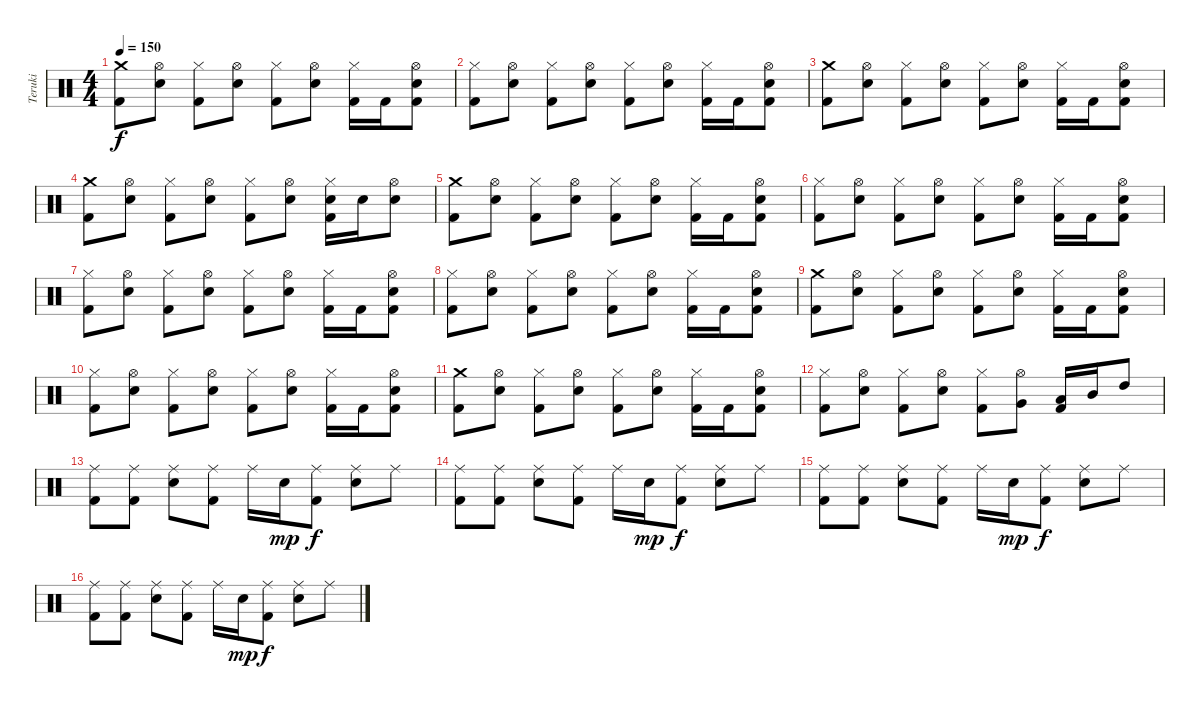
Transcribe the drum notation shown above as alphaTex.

\track ("Teruki" "Teruki") {instrument percussion}
\staff {score}
\articulation defaults
\ts (4 4)
\tempo 150
\clef neutral
\ks c
("Crash medium (hit)" "Kick (hit) 2").8{dy f} ("Hi-Hat (open)" "Electric Snare (hit)").8 ("Hi-Hat (closed)" "Kick (hit) 2").8 ("Hi-Hat (open)" "Electric Snare (hit)").8 ("Hi-Hat (closed)" "Kick (hit) 2").8 ("Hi-Hat (open)" "Electric Snare (hit)").8 ("Hi-Hat (closed)" "Kick (hit) 2").16 "Kick (hit) 2".16 ("Hi-Hat (open)" "Electric Snare (hit)" "Kick (hit) 2").8 |
("Hi-Hat (closed)" "Kick (hit) 2").8 ("Hi-Hat (open)" "Electric Snare (hit)").8 ("Hi-Hat (closed)" "Kick (hit) 2").8 ("Hi-Hat (open)" "Electric Snare (hit)").8 ("Hi-Hat (closed)" "Kick (hit) 2").8 ("Hi-Hat (open)" "Electric Snare (hit)").8 ("Hi-Hat (closed)" "Kick (hit) 2").16 "Kick (hit) 2".16 ("Hi-Hat (open)" "Electric Snare (hit)" "Kick (hit) 2").8 |
("Crash medium (hit)" "Kick (hit) 2").8 ("Hi-Hat (open)" "Electric Snare (hit)").8 ("Hi-Hat (closed)" "Kick (hit) 2").8 ("Hi-Hat (open)" "Electric Snare (hit)").8 ("Hi-Hat (closed)" "Kick (hit) 2").8 ("Hi-Hat (open)" "Electric Snare (hit)").8 ("Hi-Hat (closed)" "Kick (hit) 2").16 "Kick (hit) 2".16 ("Hi-Hat (open)" "Electric Snare (hit)" "Kick (hit) 2").8 |
("Crash medium (hit)" "Kick (hit) 2").8 ("Hi-Hat (open)" "Electric Snare (hit)").8 ("Hi-Hat (closed)" "Kick (hit) 2").8 ("Hi-Hat (open)" "Electric Snare (hit)").8 ("Hi-Hat (closed)" "Kick (hit) 2").8 ("Hi-Hat (open)" "Electric Snare (hit)").8 ("Hi-Hat (closed)" "Electric Snare (hit)" "Kick (hit) 2").16 "Electric Snare (hit)".16 ("Hi-Hat (open)" "Electric Snare (hit)").8 |
("Crash medium (hit)" "Kick (hit) 2").8 ("Hi-Hat (open)" "Electric Snare (hit)").8 ("Hi-Hat (closed)" "Kick (hit) 2").8 ("Hi-Hat (open)" "Electric Snare (hit)").8 ("Hi-Hat (closed)" "Kick (hit) 2").8 ("Hi-Hat (open)" "Electric Snare (hit)").8 ("Hi-Hat (closed)" "Kick (hit) 2").16 "Kick (hit) 2".16 ("Hi-Hat (open)" "Electric Snare (hit)" "Kick (hit) 2").8 |
("Hi-Hat (closed)" "Kick (hit) 2").8 ("Hi-Hat (open)" "Electric Snare (hit)").8 ("Hi-Hat (closed)" "Kick (hit) 2").8 ("Hi-Hat (open)" "Electric Snare (hit)").8 ("Hi-Hat (closed)" "Kick (hit) 2").8 ("Hi-Hat (open)" "Electric Snare (hit)").8 ("Hi-Hat (closed)" "Kick (hit) 2").16 "Kick (hit) 2".16 ("Hi-Hat (open)" "Electric Snare (hit)" "Kick (hit) 2").8 |
("Hi-Hat (closed)" "Kick (hit) 2").8 ("Hi-Hat (open)" "Electric Snare (hit)").8 ("Hi-Hat (closed)" "Kick (hit) 2").8 ("Hi-Hat (open)" "Electric Snare (hit)").8 ("Hi-Hat (closed)" "Kick (hit) 2").8 ("Hi-Hat (open)" "Electric Snare (hit)").8 ("Hi-Hat (closed)" "Kick (hit) 2").16 "Kick (hit) 2".16 ("Hi-Hat (open)" "Electric Snare (hit)" "Kick (hit) 2").8 |
("Hi-Hat (closed)" "Kick (hit) 2").8 ("Hi-Hat (open)" "Electric Snare (hit)").8 ("Hi-Hat (closed)" "Kick (hit) 2").8 ("Hi-Hat (open)" "Electric Snare (hit)").8 ("Hi-Hat (closed)" "Kick (hit) 2").8 ("Hi-Hat (open)" "Electric Snare (hit)").8 ("Hi-Hat (closed)" "Kick (hit) 2").16 "Kick (hit) 2".16 ("Hi-Hat (open)" "Electric Snare (hit)" "Kick (hit) 2").8 |
("Crash medium (hit)" "Kick (hit) 2").8 ("Hi-Hat (open)" "Electric Snare (hit)").8 ("Hi-Hat (closed)" "Kick (hit) 2").8 ("Hi-Hat (open)" "Electric Snare (hit)").8 ("Hi-Hat (closed)" "Kick (hit) 2").8 ("Hi-Hat (open)" "Electric Snare (hit)").8 ("Hi-Hat (closed)" "Kick (hit) 2").16 "Kick (hit) 2".16 ("Hi-Hat (open)" "Electric Snare (hit)" "Kick (hit) 2").8 |
("Hi-Hat (closed)" "Kick (hit) 2").8 ("Hi-Hat (open)" "Electric Snare (hit)").8 ("Hi-Hat (closed)" "Kick (hit) 2").8 ("Hi-Hat (open)" "Electric Snare (hit)").8 ("Hi-Hat (closed)" "Kick (hit) 2").8 ("Hi-Hat (open)" "Electric Snare (hit)").8 ("Hi-Hat (closed)" "Kick (hit) 2").16 "Kick (hit) 2".16 ("Hi-Hat (open)" "Electric Snare (hit)" "Kick (hit) 2").8 |
("Crash medium (hit)" "Kick (hit) 2").8 ("Hi-Hat (open)" "Electric Snare (hit)").8 ("Hi-Hat (closed)" "Kick (hit) 2").8 ("Hi-Hat (open)" "Electric Snare (hit)").8 ("Hi-Hat (closed)" "Kick (hit) 2").8 ("Hi-Hat (open)" "Electric Snare (hit)").8 ("Hi-Hat (closed)" "Kick (hit) 2").16 "Kick (hit) 2".16 ("Hi-Hat (open)" "Electric Snare (hit)" "Kick (hit) 2").8 |
("Hi-Hat (closed)" "Kick (hit) 2").8 ("Hi-Hat (open)" "Electric Snare (hit)").8 ("Hi-Hat (closed)" "Kick (hit) 2").8 ("Hi-Hat (open)" "Electric Snare (hit)").8 ("Hi-Hat (closed)" "Kick (hit) 2").8 ("Hi-Hat (open)" "Very Low Tom (hit)").8 ("Low Tom (hit)" "Kick (hit) 2").16 "Mid Tom (hit)".16 "High Tom (hit)".8 |
("Ride (middle)" "Kick (hit) 2").8 ("Ride (middle)" "Kick (hit) 2").8 ("Ride (middle)" "Electric Snare (hit)").8 ("Ride (middle)" "Kick (hit) 2").8 "Ride (middle)".16 "Electric Snare (hit)".16{dy mp} ("Ride (middle)" "Kick (hit) 2").8{dy f} ("Ride (middle)" "Electric Snare (hit)").8 "Ride (middle)".8 |
("Ride (middle)" "Kick (hit) 2").8 ("Ride (middle)" "Kick (hit) 2").8 ("Ride (middle)" "Electric Snare (hit)").8 ("Ride (middle)" "Kick (hit) 2").8 "Ride (middle)".16 "Electric Snare (hit)".16{dy mp} ("Ride (middle)" "Kick (hit) 2").8{dy f} ("Ride (middle)" "Electric Snare (hit)").8 "Ride (middle)".8 |
("Ride (middle)" "Kick (hit) 2").8 ("Ride (middle)" "Kick (hit) 2").8 ("Ride (middle)" "Electric Snare (hit)").8 ("Ride (middle)" "Kick (hit) 2").8 "Ride (middle)".16 "Electric Snare (hit)".16{dy mp} ("Ride (middle)" "Kick (hit) 2").8{dy f} ("Ride (middle)" "Electric Snare (hit)").8 "Ride (middle)".8 |
("Ride (middle)" "Kick (hit) 2").8 ("Ride (middle)" "Kick (hit) 2").8 ("Ride (middle)" "Electric Snare (hit)").8 ("Ride (middle)" "Kick (hit) 2").8 "Ride (middle)".16 "Electric Snare (hit)".16{dy mp} ("Ride (middle)" "Kick (hit) 2").8{dy f} ("Ride (middle)" "Electric Snare (hit)").8 "Ride (middle)".8
